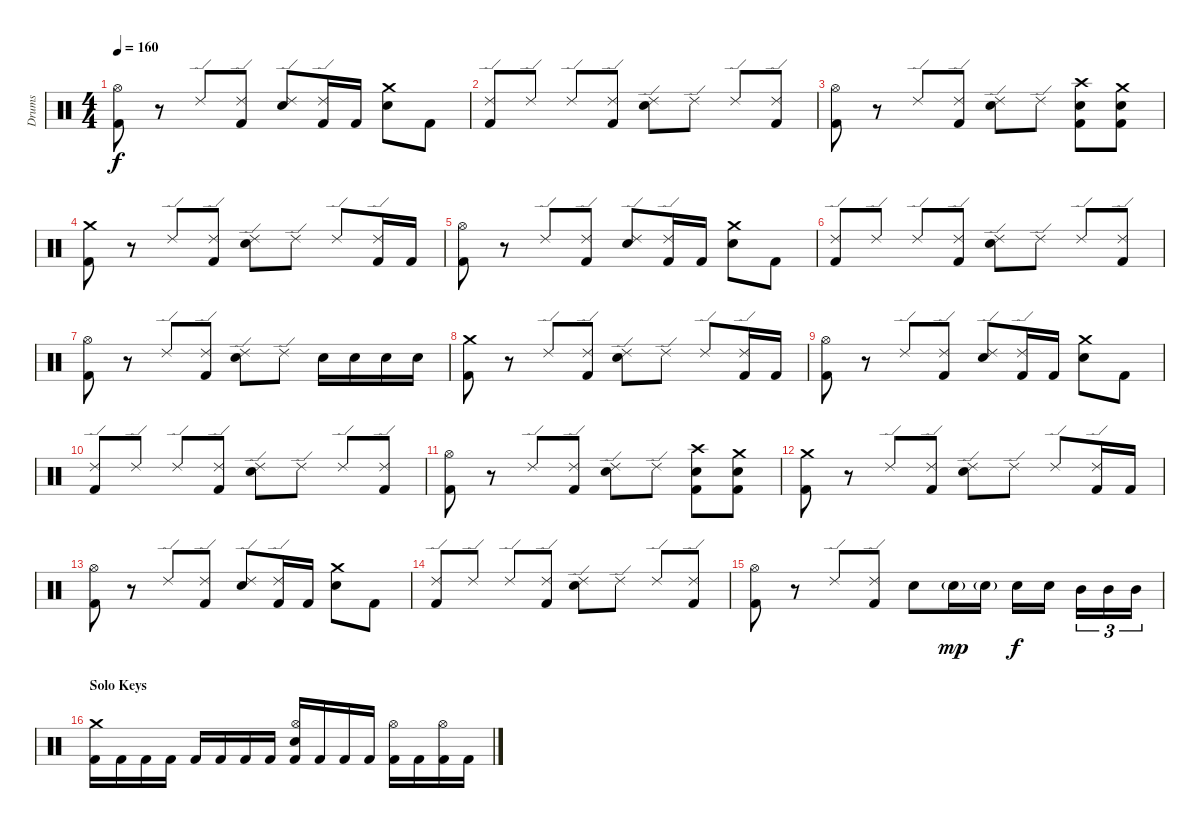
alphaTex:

\track ("Drums" "Drums") {instrument percussion}
\staff {score}
\articulation defaults
\ts (4 4)
\tempo 160
\clef neutral
\ks c
("Kick (hit) 2" "Hi-Hat (open)").8{dy f} r.8 "Ride (edge) 2".8 ("Kick (hit) 2" "Ride (edge) 2").8 ("Electric Snare (hit)" "Ride (edge) 2").8 ("Kick (hit) 2" "Ride (edge) 2").16 "Kick (hit) 2".16 ("Electric Snare (hit)" "Crash medium (hit)").8 "Kick (hit) 2".8 |
("Kick (hit) 2" "Ride (edge) 2").8 "Ride (edge) 2".8 "Ride (edge) 2".8 ("Kick (hit) 2" "Ride (edge) 2").8 ("Electric Snare (hit)" "Ride (edge) 2").8 "Ride (edge) 2".8 "Ride (edge) 2".8 ("Kick (hit) 2" "Ride (edge) 2").8 |
("Kick (hit) 2" "Hi-Hat (open)").8 r.8 "Ride (edge) 2".8 ("Kick (hit) 2" "Ride (edge) 2").8 ("Electric Snare (hit)" "Ride (edge) 2").8 "Ride (edge) 2".8 ("Kick (hit) 2" "Snare (hit) 2" "Crash high (hit)").8 ("Kick (hit) 2" "Electric Snare (hit)" "Crash medium (hit)").8 |
("Kick (hit) 2" "Crash medium (hit)").8 r.8 "Ride (edge) 2".8 ("Kick (hit) 2" "Ride (edge) 2").8 ("Electric Snare (hit)" "Ride (edge) 2").8 "Ride (edge) 2".8 "Ride (edge) 2".8 ("Kick (hit) 2" "Ride (edge) 2").16 "Kick (hit) 2".16 |
("Kick (hit) 2" "Hi-Hat (open)").8 r.8 "Ride (edge) 2".8 ("Kick (hit) 2" "Ride (edge) 2").8 ("Electric Snare (hit)" "Ride (edge) 2").8 ("Kick (hit) 2" "Ride (edge) 2").16 "Kick (hit) 2".16 ("Electric Snare (hit)" "Crash medium (hit)").8 "Kick (hit) 2".8 |
("Kick (hit) 2" "Ride (edge) 2").8 "Ride (edge) 2".8 "Ride (edge) 2".8 ("Kick (hit) 2" "Ride (edge) 2").8 ("Electric Snare (hit)" "Ride (edge) 2").8 "Ride (edge) 2".8 "Ride (edge) 2".8 ("Kick (hit) 2" "Ride (edge) 2").8 |
("Kick (hit) 2" "Hi-Hat (open)").8 r.8 "Ride (edge) 2".8 ("Kick (hit) 2" "Ride (edge) 2").8 ("Electric Snare (hit)" "Ride (edge) 2").8 "Ride (edge) 2".8 "Electric Snare (hit)".16 "Electric Snare (hit)".16 "Electric Snare (hit)".16 "Electric Snare (hit)".16 |
("Kick (hit) 2" "Crash medium (hit)").8 r.8 "Ride (edge) 2".8 ("Kick (hit) 2" "Ride (edge) 2").8 ("Electric Snare (hit)" "Ride (edge) 2").8 "Ride (edge) 2".8 "Ride (edge) 2".8 ("Kick (hit) 2" "Ride (edge) 2").16 "Kick (hit) 2".16 |
("Kick (hit) 2" "Hi-Hat (open)").8 r.8 "Ride (edge) 2".8 ("Kick (hit) 2" "Ride (edge) 2").8 ("Electric Snare (hit)" "Ride (edge) 2").8 ("Kick (hit) 2" "Ride (edge) 2").16 "Kick (hit) 2".16 ("Electric Snare (hit)" "Crash medium (hit)").8 "Kick (hit) 2".8 |
("Kick (hit) 2" "Ride (edge) 2").8 "Ride (edge) 2".8 "Ride (edge) 2".8 ("Kick (hit) 2" "Ride (edge) 2").8 ("Electric Snare (hit)" "Ride (edge) 2").8 "Ride (edge) 2".8 "Ride (edge) 2".8 ("Kick (hit) 2" "Ride (edge) 2").8 |
("Kick (hit) 2" "Hi-Hat (open)").8 r.8 "Ride (edge) 2".8 ("Kick (hit) 2" "Ride (edge) 2").8 ("Electric Snare (hit)" "Ride (edge) 2").8 "Ride (edge) 2".8 ("Kick (hit) 2" "Snare (hit) 2" "Crash high (hit)").8 ("Kick (hit) 2" "Electric Snare (hit)" "Crash medium (hit)").8 |
("Kick (hit) 2" "Crash medium (hit)").8 r.8 "Ride (edge) 2".8 ("Kick (hit) 2" "Ride (edge) 2").8 ("Electric Snare (hit)" "Ride (edge) 2").8 "Ride (edge) 2".8 "Ride (edge) 2".8 ("Kick (hit) 2" "Ride (edge) 2").16 "Kick (hit) 2".16 |
("Kick (hit) 2" "Hi-Hat (open)").8 r.8 "Ride (edge) 2".8 ("Kick (hit) 2" "Ride (edge) 2").8 ("Electric Snare (hit)" "Ride (edge) 2").8 ("Kick (hit) 2" "Ride (edge) 2").16 "Kick (hit) 2".16 ("Electric Snare (hit)" "Crash medium (hit)").8 "Kick (hit) 2".8 |
("Kick (hit) 2" "Ride (edge) 2").8 "Ride (edge) 2".8 "Ride (edge) 2".8 ("Kick (hit) 2" "Ride (edge) 2").8 ("Electric Snare (hit)" "Ride (edge) 2").8 "Ride (edge) 2".8 "Ride (edge) 2".8 ("Kick (hit) 2" "Ride (edge) 2").8 |
("Kick (hit) 2" "Hi-Hat (open)").8 r.8 "Ride (edge) 2".8 ("Kick (hit) 2" "Ride (edge) 2").8 "Electric Snare (hit)".8 "Electric Snare (hit)"{g}.16{dy mp} "Electric Snare (hit)"{g}.16 "Snare (hit) 2".16{dy f} "Snare (hit) 2".16 "Mid Tom (hit)".16{tu (3 2)} "Mid Tom (hit)".16{tu (3 2)} "Mid Tom (hit)".16{tu (3 2)} |
\section ("" "Solo Keys")
("Kick (hit) 2" "Crash medium (hit)").16 "Kick (hit) 2".16 "Kick (hit) 2".16 "Kick (hit) 2".16 "Kick (hit) 2".16 "Kick (hit) 2".16 "Kick (hit) 2".16 "Kick (hit) 2".16 ("Electric Snare (hit)" "Kick (hit) 2" "Hi-Hat (open)").16 "Kick (hit) 2".16 "Kick (hit) 2".16 "Kick (hit) 2".16 ("Kick (hit) 2" "Hi-Hat (open)").16 "Kick (hit) 2".16 ("Kick (hit) 2" "Hi-Hat (open)").16 "Kick (hit) 2".16
